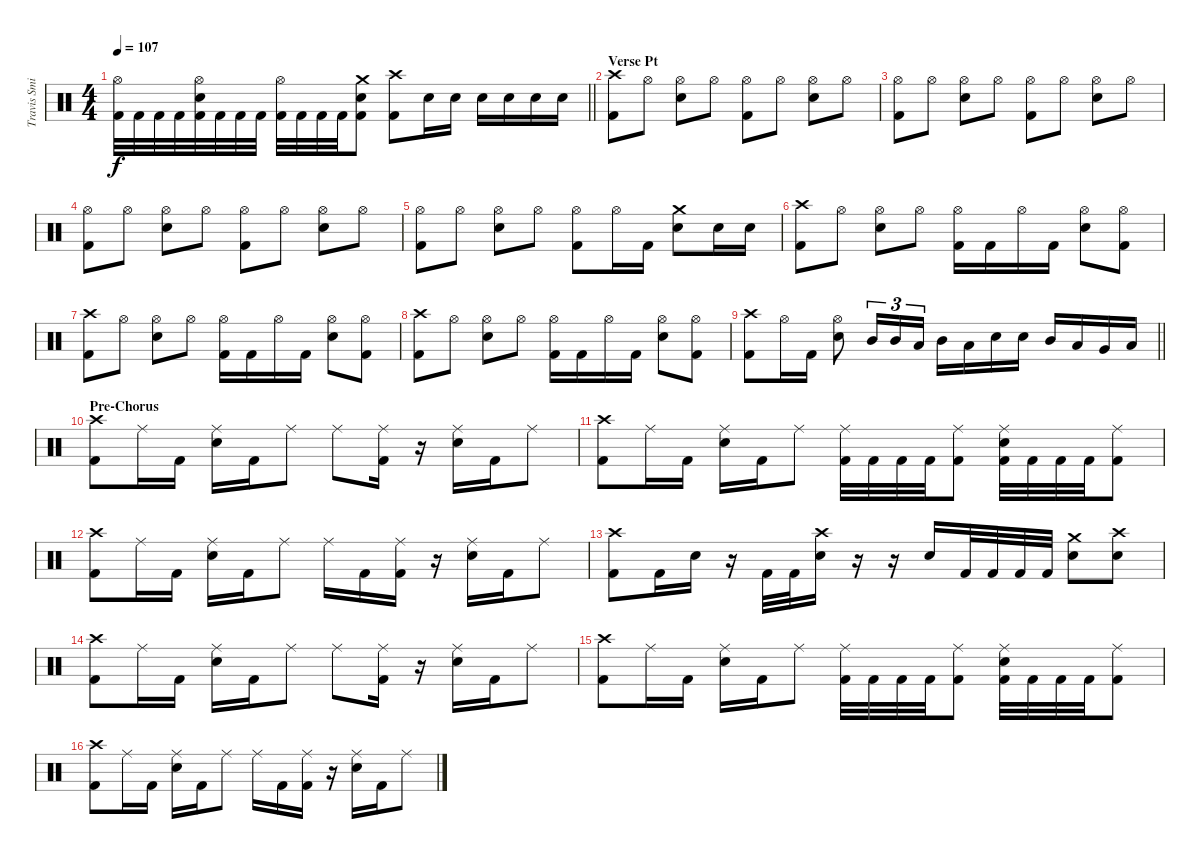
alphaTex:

\track ("Travis Smith" "Travis Smi") {instrument percussion}
\staff {score}
\articulation defaults
\ts (4 4)
\tempo 107
\clef neutral
\barLineRight lightlight
\ks c
("Hi-Hat (open)" "Kick (hit) 2").32{dy f} "Kick (hit) 2".32 "Kick (hit) 2".32 "Kick (hit) 2".32 ("Hi-Hat (open)" "Electric Snare (hit)" "Kick (hit) 2").32 "Kick (hit) 2".32 "Kick (hit) 2".32 "Kick (hit) 2".32 ("Hi-Hat (open)" "Kick (hit) 2").32 "Kick (hit) 2".32 "Kick (hit) 2".32 "Kick (hit) 2".32 ("Crash medium (hit)" "Electric Snare (hit)" "Kick (hit) 2").8 ("Crash high (hit)" "Kick (hit) 2").8 "Electric Snare (hit)".16 "Electric Snare (hit)".16 "Electric Snare (hit)".16 "Electric Snare (hit)".16 "Electric Snare (hit)".16 "Electric Snare (hit)".16 |
\section ("" "Verse Pt")
("Crash high (hit)" "Kick (hit) 2").8 "Hi-Hat (open)".8 ("Hi-Hat (open)" "Electric Snare (hit)").8 "Hi-Hat (open)".8 ("Hi-Hat (open)" "Kick (hit) 2").8 "Hi-Hat (open)".8 ("Hi-Hat (open)" "Electric Snare (hit)").8 "Hi-Hat (open)".8 |
("Hi-Hat (open)" "Kick (hit) 2").8 "Hi-Hat (open)".8 ("Hi-Hat (open)" "Electric Snare (hit)").8 "Hi-Hat (open)".8 ("Hi-Hat (open)" "Kick (hit) 2").8 "Hi-Hat (open)".8 ("Hi-Hat (open)" "Electric Snare (hit)").8 "Hi-Hat (open)".8 |
("Hi-Hat (open)" "Kick (hit) 2").8 "Hi-Hat (open)".8 ("Hi-Hat (open)" "Electric Snare (hit)").8 "Hi-Hat (open)".8 ("Hi-Hat (open)" "Kick (hit) 2").8 "Hi-Hat (open)".8 ("Hi-Hat (open)" "Electric Snare (hit)").8 "Hi-Hat (open)".8 |
("Hi-Hat (open)" "Kick (hit) 2").8 "Hi-Hat (open)".8 ("Hi-Hat (open)" "Electric Snare (hit)").8 "Hi-Hat (open)".8 ("Hi-Hat (open)" "Kick (hit) 2").8 "Hi-Hat (open)".16 "Kick (hit) 2".16 ("Crash medium (hit)" "Electric Snare (hit)").8 "Electric Snare (hit)".16 "Electric Snare (hit)".16 |
("Crash high (hit)" "Kick (hit) 2").8 "Hi-Hat (open)".8 ("Hi-Hat (open)" "Electric Snare (hit)").8 "Hi-Hat (open)".8 ("Hi-Hat (open)" "Kick (hit) 2").16 "Kick (hit) 2".16 "Hi-Hat (open)".16 "Kick (hit) 2".16 ("Hi-Hat (open)" "Electric Snare (hit)").8 ("Hi-Hat (open)" "Kick (hit) 2").8 |
("Crash high (hit)" "Kick (hit) 2").8 "Hi-Hat (open)".8 ("Hi-Hat (open)" "Electric Snare (hit)").8 "Hi-Hat (open)".8 ("Hi-Hat (open)" "Kick (hit) 2").16 "Kick (hit) 2".16 "Hi-Hat (open)".16 "Kick (hit) 2".16 ("Hi-Hat (open)" "Electric Snare (hit)").8 ("Hi-Hat (open)" "Kick (hit) 2").8 |
("Crash high (hit)" "Kick (hit) 2").8 "Hi-Hat (open)".8 ("Hi-Hat (open)" "Electric Snare (hit)").8 "Hi-Hat (open)".8 ("Hi-Hat (open)" "Kick (hit) 2").16 "Kick (hit) 2".16 "Hi-Hat (open)".16 "Kick (hit) 2".16 ("Hi-Hat (open)" "Electric Snare (hit)").8 ("Hi-Hat (open)" "Kick (hit) 2").8 |
\barLineRight lightlight
("Crash high (hit)" "Kick (hit) 2").8 "Hi-Hat (open)".16 "Kick (hit) 2".16 ("Hi-Hat (open)" "Electric Snare (hit)").8 "Mid Tom (hit)".16{tu (3 2)} "Mid Tom (hit)".16{tu (3 2)} "Low Tom (hit)".16{tu (3 2)} "Mid Tom (hit)".16 "Low Tom (hit)".16 "Electric Snare (hit)".16 "Electric Snare (hit)".16 "Mid Tom (hit)".16 "Low Tom (hit)".16 "Very Low Tom (hit)".16 "Low Floor Tom (hit)".16 |
\section ("" "Pre-Chorus")
("Crash high (hit)" "Kick (hit) 2").8 "Ride (middle)".16 "Kick (hit) 2".16 ("Ride (middle)" "Electric Snare (hit)").16 "Kick (hit) 2".16 "Ride (middle)".8 "Ride (middle)".8 ("Ride (middle)" "Kick (hit) 2").16 r.16 ("Ride (middle)" "Electric Snare (hit)").16 "Kick (hit) 2".16 "Ride (middle)".8 |
("Crash high (hit)" "Kick (hit) 2").8 "Ride (middle)".16 "Kick (hit) 2".16 ("Ride (middle)" "Electric Snare (hit)").16 "Kick (hit) 2".16 "Ride (middle)".8 ("Ride (middle)" "Kick (hit) 2").32 "Kick (hit) 2".32 "Kick (hit) 2".32 "Kick (hit) 2".32 ("Ride (middle)" "Kick (hit) 2").8 ("Ride (middle)" "Electric Snare (hit)" "Kick (hit) 2").32 "Kick (hit) 2".32 "Kick (hit) 2".32 "Kick (hit) 2".32 ("Ride (middle)" "Kick (hit) 2").8 |
("Crash high (hit)" "Kick (hit) 2").8 "Ride (middle)".16 "Kick (hit) 2".16 ("Ride (middle)" "Electric Snare (hit)").16 "Kick (hit) 2".16 "Ride (middle)".8 "Ride (middle)".16 "Kick (hit) 2".16 ("Ride (middle)" "Kick (hit) 2").16 r.16 ("Ride (middle)" "Electric Snare (hit)").16 "Kick (hit) 2".16 "Ride (middle)".8 |
("Crash high (hit)" "Kick (hit) 2").8 "Kick (hit) 2".16 "Electric Snare (hit)".16 r.16 "Kick (hit) 2".32 "Kick (hit) 2".32 ("Crash high (hit)" "Electric Snare (hit)").16 r.16 r.16 "Electric Snare (hit)".16 "Kick (hit) 2".32 "Kick (hit) 2".32 "Kick (hit) 2".32 "Kick (hit) 2".32 ("Crash medium (hit)" "Electric Snare (hit)").8 ("Crash high (hit)" "Electric Snare (hit)").8 |
("Crash high (hit)" "Kick (hit) 2").8 "Ride (middle)".16 "Kick (hit) 2".16 ("Ride (middle)" "Electric Snare (hit)").16 "Kick (hit) 2".16 "Ride (middle)".8 "Ride (middle)".8 ("Ride (middle)" "Kick (hit) 2").16 r.16 ("Ride (middle)" "Electric Snare (hit)").16 "Kick (hit) 2".16 "Ride (middle)".8 |
("Crash high (hit)" "Kick (hit) 2").8 "Ride (middle)".16 "Kick (hit) 2".16 ("Ride (middle)" "Electric Snare (hit)").16 "Kick (hit) 2".16 "Ride (middle)".8 ("Ride (middle)" "Kick (hit) 2").32 "Kick (hit) 2".32 "Kick (hit) 2".32 "Kick (hit) 2".32 ("Ride (middle)" "Kick (hit) 2").8 ("Ride (middle)" "Electric Snare (hit)" "Kick (hit) 2").32 "Kick (hit) 2".32 "Kick (hit) 2".32 "Kick (hit) 2".32 ("Ride (middle)" "Kick (hit) 2").8 |
("Crash high (hit)" "Kick (hit) 2").8 "Ride (middle)".16 "Kick (hit) 2".16 ("Ride (middle)" "Electric Snare (hit)").16 "Kick (hit) 2".16 "Ride (middle)".8 "Ride (middle)".16 "Kick (hit) 2".16 ("Ride (middle)" "Kick (hit) 2").16 r.16 ("Ride (middle)" "Electric Snare (hit)").16 "Kick (hit) 2".16 "Ride (middle)".8
